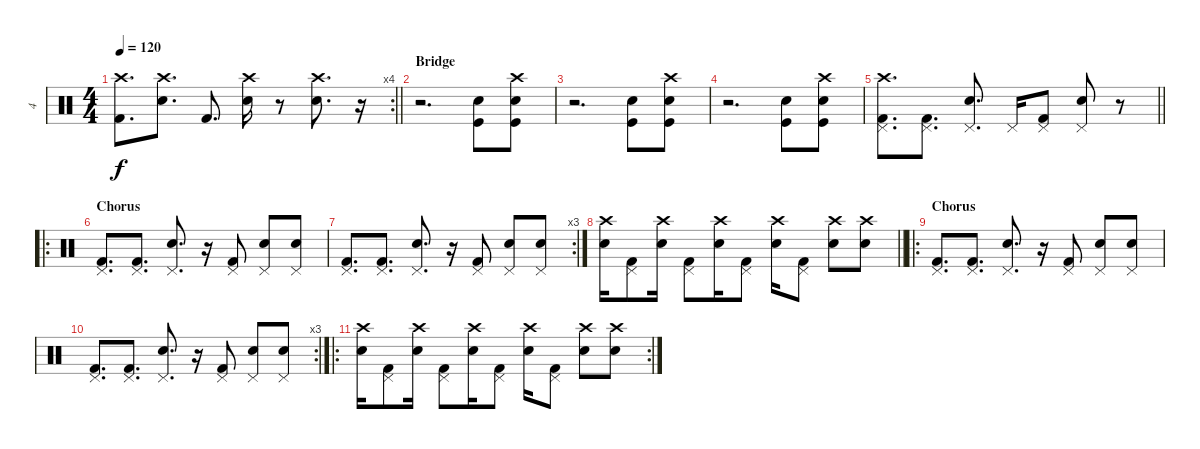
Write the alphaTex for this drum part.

\track ("4" "4") {instrument percussion}
\staff {score}
\articulation defaults
\rc 4
\ts (4 4)
\tempo 120
\clef neutral
\barLineRight lightlight
\ks c
("Crash high (hit)" "Kick (hit) 2").8{d dy f} ("Crash high (hit)" "Snare (hit) 2").8{d} "Kick (hit) 2".8{d} ("Crash high (hit)" "Snare (hit) 2").16 r.8 ("Crash high (hit)" "Snare (hit) 2").8{d} r.16 |
\section ("" "Bridge")
r.2{d} ("Kick (hit)" "Snare (hit) 2").8 ("Crash high (hit)" "Kick (hit)" "Snare (hit) 2").8 |
r.2{d} ("Kick (hit)" "Snare (hit) 2").8 ("Crash high (hit)" "Kick (hit)" "Snare (hit) 2").8 |
r.2{d} ("Kick (hit)" "Snare (hit) 2").8 ("Crash high (hit)" "Kick (hit)" "Snare (hit) 2").8 |
\barLineRight lightlight
("Crash high (hit)" "Pedal Hi-Hat (hit)" "Kick (hit) 2").8{d} ("Pedal Hi-Hat (hit)" "Kick (hit) 2").8{d} ("Pedal Hi-Hat (hit)" "Snare (hit) 2").8{d} "Pedal Hi-Hat (hit)".16 ("Pedal Hi-Hat (hit)" "Kick (hit) 2").8 ("Pedal Hi-Hat (hit)" "Snare (hit) 2").8 r.8 |
\ro
\section ("" "Chorus")
("Pedal Hi-Hat (hit)" "Kick (hit) 2").8{d} ("Pedal Hi-Hat (hit)" "Kick (hit) 2").8{d} ("Pedal Hi-Hat (hit)" "Snare (hit) 2").8{d} r.16 ("Pedal Hi-Hat (hit)" "Kick (hit) 2").8 ("Pedal Hi-Hat (hit)" "Snare (hit) 2").8 ("Pedal Hi-Hat (hit)" "Snare (hit) 2").8 |
\rc 3
("Pedal Hi-Hat (hit)" "Kick (hit) 2").8{d} ("Pedal Hi-Hat (hit)" "Kick (hit) 2").8{d} ("Pedal Hi-Hat (hit)" "Snare (hit) 2").8{d} r.16 ("Pedal Hi-Hat (hit)" "Kick (hit) 2").8 ("Pedal Hi-Hat (hit)" "Snare (hit) 2").8 ("Pedal Hi-Hat (hit)" "Snare (hit) 2").8 |
\barLineRight lightlight
("Crash high (hit)" "Snare (hit) 2").16 ("Pedal Hi-Hat (hit)" "Kick (hit) 2").8 ("Crash high (hit)" "Snare (hit) 2").16 ("Pedal Hi-Hat (hit)" "Kick (hit) 2").8 ("Crash high (hit)" "Snare (hit) 2").16 ("Pedal Hi-Hat (hit)" "Kick (hit) 2").8 ("Crash high (hit)" "Snare (hit) 2").16 ("Pedal Hi-Hat (hit)" "Kick (hit) 2").8 ("Crash high (hit)" "Snare (hit) 2").8 ("Crash high (hit)" "Snare (hit) 2").8 |
\ro
\section ("" "Chorus")
("Pedal Hi-Hat (hit)" "Kick (hit) 2").8{d} ("Pedal Hi-Hat (hit)" "Kick (hit) 2").8{d} ("Pedal Hi-Hat (hit)" "Snare (hit) 2").8{d} r.16 ("Pedal Hi-Hat (hit)" "Kick (hit) 2").8 ("Pedal Hi-Hat (hit)" "Snare (hit) 2").8 ("Pedal Hi-Hat (hit)" "Snare (hit) 2").8 |
\rc 3
("Pedal Hi-Hat (hit)" "Kick (hit) 2").8{d} ("Pedal Hi-Hat (hit)" "Kick (hit) 2").8{d} ("Pedal Hi-Hat (hit)" "Snare (hit) 2").8{d} r.16 ("Pedal Hi-Hat (hit)" "Kick (hit) 2").8 ("Pedal Hi-Hat (hit)" "Snare (hit) 2").8 ("Pedal Hi-Hat (hit)" "Snare (hit) 2").8 |
\ro
\rc 2
("Crash high (hit)" "Snare (hit) 2").16 ("Pedal Hi-Hat (hit)" "Kick (hit) 2").8 ("Crash high (hit)" "Snare (hit) 2").16 ("Pedal Hi-Hat (hit)" "Kick (hit) 2").8 ("Crash high (hit)" "Snare (hit) 2").16 ("Pedal Hi-Hat (hit)" "Kick (hit) 2").8 ("Crash high (hit)" "Snare (hit) 2").16 ("Pedal Hi-Hat (hit)" "Kick (hit) 2").8 ("Crash high (hit)" "Snare (hit) 2").8 ("Crash high (hit)" "Snare (hit) 2").8
